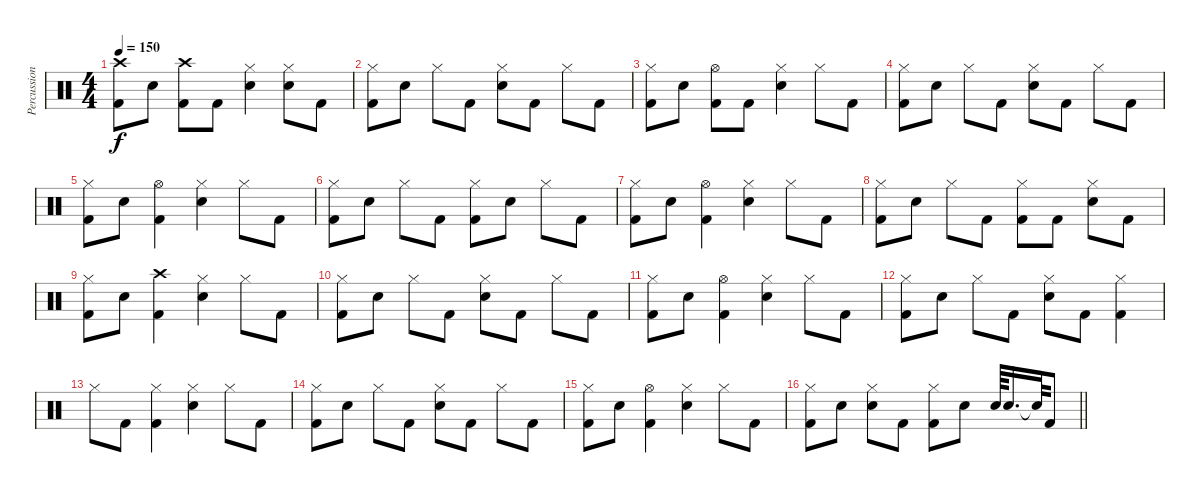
\track ("Percussion" "Percussion") {instrument percussion}
\staff {score}
\articulation defaults
\ts (4 4)
\tempo 150
\clef neutral
\ks c
("Crash high (hit)" "Kick (hit) 2").8{dy f} "Snare (hit) 2".8 ("Crash high (hit)" "Kick (hit) 2").8 "Kick (hit) 2".8 ("Hi-Hat (closed)" "Snare (hit) 2").4 ("Hi-Hat (closed)" "Snare (hit) 2").8 "Kick (hit) 2".8 |
("Hi-Hat (closed)" "Kick (hit) 2").8 "Snare (hit) 2".8 "Hi-Hat (closed)".8 "Kick (hit) 2".8 ("Hi-Hat (closed)" "Snare (hit) 2").8 "Kick (hit) 2".8 "Hi-Hat (closed)".8 "Kick (hit) 2".8 |
("Hi-Hat (closed)" "Kick (hit) 2").8 "Snare (hit) 2".8 ("Hi-Hat (open)" "Kick (hit) 2").8 "Kick (hit) 2".8 ("Hi-Hat (closed)" "Snare (hit) 2").4 "Hi-Hat (closed)".8 "Kick (hit) 2".8 |
("Hi-Hat (closed)" "Kick (hit) 2").8 "Snare (hit) 2".8 "Hi-Hat (closed)".8 "Kick (hit) 2".8 ("Hi-Hat (closed)" "Snare (hit) 2").8 "Kick (hit) 2".8 "Hi-Hat (closed)".8 "Kick (hit) 2".8 |
("Hi-Hat (closed)" "Kick (hit) 2").8 "Snare (hit) 2".8 ("Hi-Hat (open)" "Kick (hit) 2").4 ("Hi-Hat (closed)" "Snare (hit) 2").4 "Hi-Hat (closed)".8 "Kick (hit) 2".8 |
("Hi-Hat (closed)" "Kick (hit) 2").8 "Snare (hit) 2".8 "Hi-Hat (closed)".8 "Kick (hit) 2".8 ("Hi-Hat (closed)" "Kick (hit) 2").8 "Snare (hit) 2".8 "Hi-Hat (closed)".8 "Kick (hit) 2".8 |
("Hi-Hat (closed)" "Kick (hit) 2").8 "Snare (hit) 2".8 ("Hi-Hat (open)" "Kick (hit) 2").4 ("Hi-Hat (closed)" "Snare (hit) 2").4 "Hi-Hat (closed)".8 "Kick (hit) 2".8 |
("Hi-Hat (closed)" "Kick (hit) 2").8 "Snare (hit) 2".8 "Hi-Hat (closed)".8 "Kick (hit) 2".8 ("Hi-Hat (closed)" "Kick (hit) 2").8 "Kick (hit) 2".8 ("Hi-Hat (closed)" "Snare (hit) 2").8 "Kick (hit) 2".8 |
("Hi-Hat (closed)" "Kick (hit) 2").8 "Snare (hit) 2".8 ("Crash high (hit)" "Kick (hit) 2").4 ("Hi-Hat (closed)" "Snare (hit) 2").4 "Hi-Hat (closed)".8 "Kick (hit) 2".8 |
("Hi-Hat (closed)" "Kick (hit) 2").8 "Snare (hit) 2".8 "Hi-Hat (closed)".8 "Kick (hit) 2".8 ("Hi-Hat (closed)" "Snare (hit) 2").8 "Kick (hit) 2".8 "Hi-Hat (closed)".8 "Kick (hit) 2".8 |
("Hi-Hat (closed)" "Kick (hit) 2").8 "Snare (hit) 2".8 ("Hi-Hat (open)" "Kick (hit) 2").4 ("Hi-Hat (closed)" "Snare (hit) 2").4 "Hi-Hat (closed)".8 "Kick (hit) 2".8 |
("Hi-Hat (closed)" "Kick (hit) 2").8 "Snare (hit) 2".8 "Hi-Hat (closed)".8 "Kick (hit) 2".8 ("Hi-Hat (closed)" "Snare (hit) 2").8 "Kick (hit) 2".8 ("Hi-Hat (closed)" "Kick (hit) 2").4 |
"Hi-Hat (closed)".8 "Kick (hit) 2".8 ("Hi-Hat (closed)" "Kick (hit) 2").4 ("Hi-Hat (closed)" "Snare (hit) 2").4 "Hi-Hat (closed)".8 "Kick (hit) 2".8 |
("Hi-Hat (closed)" "Kick (hit) 2").8 "Snare (hit) 2".8 "Hi-Hat (closed)".8 "Kick (hit) 2".8 ("Hi-Hat (closed)" "Snare (hit) 2").8 "Kick (hit) 2".8 "Hi-Hat (closed)".8 "Kick (hit) 2".8 |
("Hi-Hat (closed)" "Kick (hit) 2").8 "Snare (hit) 2".8 ("Hi-Hat (open)" "Kick (hit) 2").4 ("Hi-Hat (closed)" "Snare (hit) 2").4 "Hi-Hat (closed)".8 "Kick (hit) 2".8 |
\barLineRight lightlight
("Hi-Hat (closed)" "Kick (hit) 2").8 "Snare (hit) 2".8 ("Hi-Hat (closed)" "Snare (hit) 2").8 "Kick (hit) 2".8 ("Hi-Hat (closed)" "Kick (hit) 2").8 "Snare (hit) 2".8 "Snare (hit) 2".64 "Snare (hit) 2".16{d} "Snare (hit)"{t}.64 "Kick (hit) 2".8
